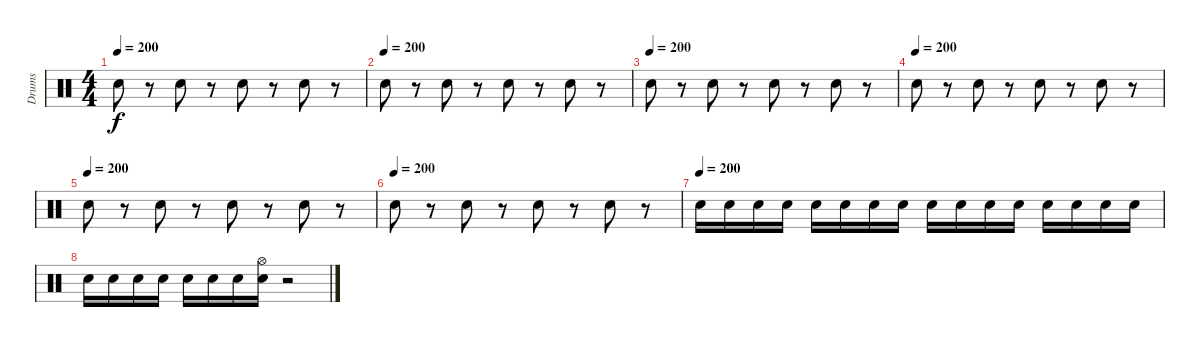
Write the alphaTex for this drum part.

\track ("Drums" "Drums") {instrument percussion}
\staff {score}
\articulation defaults
\ts (4 4)
\tempo 200
\clef neutral
\ks c "Electric Snare (hit)".8{dy f}
r.8 "Electric Snare (hit)".8 r.8 "Electric Snare (hit)".8 r.8 "Electric Snare (hit)".8 r.8 |
\tempo (200)
"Electric Snare (hit)".8 r.8 "Electric Snare (hit)".8 r.8 "Electric Snare (hit)".8 r.8 "Electric Snare (hit)".8 r.8 |
\tempo (200)
"Electric Snare (hit)".8 r.8 "Electric Snare (hit)".8 r.8 "Electric Snare (hit)".8 r.8 "Electric Snare (hit)".8 r.8 |
\tempo (200)
"Electric Snare (hit)".8 r.8 "Electric Snare (hit)".8 r.8 "Electric Snare (hit)".8 r.8 "Electric Snare (hit)".8 r.8 |
\tempo (200)
"Electric Snare (hit)".8 r.8 "Electric Snare (hit)".8 r.8 "Electric Snare (hit)".8 r.8 "Electric Snare (hit)".8 r.8 |
\tempo (200)
"Electric Snare (hit)".8 r.8 "Electric Snare (hit)".8 r.8 "Electric Snare (hit)".8 r.8 "Electric Snare (hit)".8 r.8 |
\tempo (200)
"Snare (hit) 2".16 "Snare (hit) 2".16 "Snare (hit) 2".16 "Snare (hit) 2".16 "Snare (hit) 2".16 "Snare (hit) 2".16 "Snare (hit) 2".16 "Snare (hit) 2".16 "Snare (hit) 2".16 "Snare (hit) 2".16 "Snare (hit) 2".16 "Snare (hit) 2".16 "Snare (hit) 2".16 "Snare (hit) 2".16 "Snare (hit) 2".16 "Snare (hit) 2".16 |
"Snare (hit) 2".16 "Snare (hit) 2".16 "Snare (hit) 2".16 "Snare (hit) 2".16 "Snare (hit) 2".16 "Snare (hit) 2".16 "Snare (hit) 2".16 ("Snare (hit) 2" "Hi-Hat (open)").16 r.2
